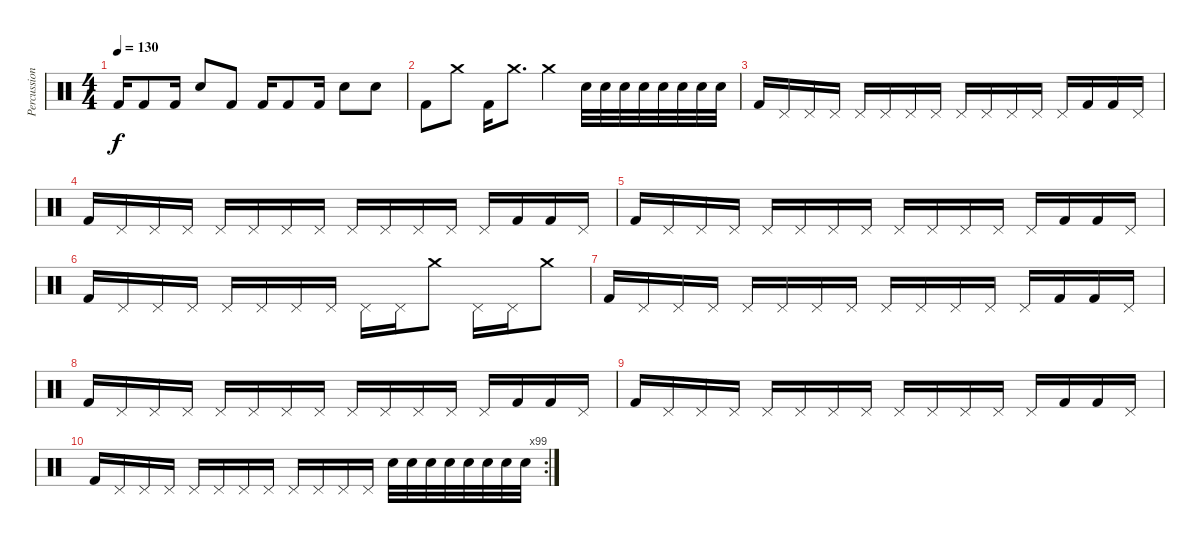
\track ("Percussion" "Percussion") {instrument percussion}
\staff {score}
\articulation defaults
\ts (4 4)
\tempo 130
\clef neutral
\ks c "Kick (hit) 2".16{dy f} "Kick (hit) 2".8 "Kick (hit) 2".16 "Snare (hit) 2".8 "Kick (hit) 2".8 "Kick (hit) 2".16 "Kick (hit) 2".8 "Kick (hit) 2".16 "Snare (hit) 2".8 "Snare (hit)".8
|
"Kick (hit) 2".8 "Crash medium (hit)".8 "Kick (hit) 2".16 "Crash medium (hit)".8{d} "Crash medium (hit)".4 "Snare (hit) 2".32 "Snare (hit) 2".32 "Snare (hit) 2".32 "Snare (hit) 2".32 "Snare (hit) 2".32 "Snare (hit) 2".32 "Snare (hit) 2".32 "Snare (hit) 2".32 |
"Kick (hit) 2".16 "Pedal Hi-Hat (hit)".16 "Pedal Hi-Hat (hit)".16 "Pedal Hi-Hat (hit)".16 "Pedal Hi-Hat (hit)".16 "Pedal Hi-Hat (hit)".16 "Pedal Hi-Hat (hit)".16 "Pedal Hi-Hat (hit)".16 "Pedal Hi-Hat (hit)".16 "Pedal Hi-Hat (hit)".16 "Pedal Hi-Hat (hit)".16 "Pedal Hi-Hat (hit)".16 "Pedal Hi-Hat (hit)".16 "Kick (hit) 2".16 "Kick (hit) 2".16 "Pedal Hi-Hat (hit)".16 |
"Kick (hit) 2".16 "Pedal Hi-Hat (hit)".16 "Pedal Hi-Hat (hit)".16 "Pedal Hi-Hat (hit)".16 "Pedal Hi-Hat (hit)".16 "Pedal Hi-Hat (hit)".16 "Pedal Hi-Hat (hit)".16 "Pedal Hi-Hat (hit)".16 "Pedal Hi-Hat (hit)".16 "Pedal Hi-Hat (hit)".16 "Pedal Hi-Hat (hit)".16 "Pedal Hi-Hat (hit)".16 "Pedal Hi-Hat (hit)".16 "Kick (hit) 2".16 "Kick (hit) 2".16 "Pedal Hi-Hat (hit)".16 |
"Kick (hit) 2".16 "Pedal Hi-Hat (hit)".16 "Pedal Hi-Hat (hit)".16 "Pedal Hi-Hat (hit)".16 "Pedal Hi-Hat (hit)".16 "Pedal Hi-Hat (hit)".16 "Pedal Hi-Hat (hit)".16 "Pedal Hi-Hat (hit)".16 "Pedal Hi-Hat (hit)".16 "Pedal Hi-Hat (hit)".16 "Pedal Hi-Hat (hit)".16 "Pedal Hi-Hat (hit)".16 "Pedal Hi-Hat (hit)".16 "Kick (hit) 2".16 "Kick (hit) 2".16 "Pedal Hi-Hat (hit)".16 |
"Kick (hit) 2".16 "Pedal Hi-Hat (hit)".16 "Pedal Hi-Hat (hit)".16 "Pedal Hi-Hat (hit)".16 "Pedal Hi-Hat (hit)".16 "Pedal Hi-Hat (hit)".16 "Pedal Hi-Hat (hit)".16 "Pedal Hi-Hat (hit)".16 "Pedal Hi-Hat (hit)".16 "Pedal Hi-Hat (hit)".16 "Crash medium (hit)".8 "Pedal Hi-Hat (hit)".16 "Pedal Hi-Hat (hit)".16 "Crash medium (hit)".8 |
"Kick (hit) 2".16 "Pedal Hi-Hat (hit)".16 "Pedal Hi-Hat (hit)".16 "Pedal Hi-Hat (hit)".16 "Pedal Hi-Hat (hit)".16 "Pedal Hi-Hat (hit)".16 "Pedal Hi-Hat (hit)".16 "Pedal Hi-Hat (hit)".16 "Pedal Hi-Hat (hit)".16 "Pedal Hi-Hat (hit)".16 "Pedal Hi-Hat (hit)".16 "Pedal Hi-Hat (hit)".16 "Pedal Hi-Hat (hit)".16 "Kick (hit) 2".16 "Kick (hit) 2".16 "Pedal Hi-Hat (hit)".16 |
"Kick (hit) 2".16 "Pedal Hi-Hat (hit)".16 "Pedal Hi-Hat (hit)".16 "Pedal Hi-Hat (hit)".16 "Pedal Hi-Hat (hit)".16 "Pedal Hi-Hat (hit)".16 "Pedal Hi-Hat (hit)".16 "Pedal Hi-Hat (hit)".16 "Pedal Hi-Hat (hit)".16 "Pedal Hi-Hat (hit)".16 "Pedal Hi-Hat (hit)".16 "Pedal Hi-Hat (hit)".16 "Pedal Hi-Hat (hit)".16 "Kick (hit) 2".16 "Kick (hit) 2".16 "Pedal Hi-Hat (hit)".16 |
"Kick (hit) 2".16 "Pedal Hi-Hat (hit)".16 "Pedal Hi-Hat (hit)".16 "Pedal Hi-Hat (hit)".16 "Pedal Hi-Hat (hit)".16 "Pedal Hi-Hat (hit)".16 "Pedal Hi-Hat (hit)".16 "Pedal Hi-Hat (hit)".16 "Pedal Hi-Hat (hit)".16 "Pedal Hi-Hat (hit)".16 "Pedal Hi-Hat (hit)".16 "Pedal Hi-Hat (hit)".16 "Pedal Hi-Hat (hit)".16 "Kick (hit) 2".16 "Kick (hit) 2".16 "Pedal Hi-Hat (hit)".16 |
\rc 99 "Kick (hit) 2".16 "Pedal Hi-Hat (hit)".16 "Pedal Hi-Hat (hit)".16 "Pedal Hi-Hat (hit)".16 "Pedal Hi-Hat (hit)".16 "Pedal Hi-Hat (hit)".16 "Pedal Hi-Hat (hit)".16 "Pedal Hi-Hat (hit)".16 "Pedal Hi-Hat (hit)".16 "Pedal Hi-Hat (hit)".16 "Pedal Hi-Hat (hit)".16 "Pedal Hi-Hat (hit)".16 "Snare (hit) 2".32 "Snare (hit) 2".32 "Snare (hit) 2".32 "Snare (hit) 2".32 "Snare (hit) 2".32 "Snare (hit) 2".32 "Snare (hit) 2".32 "Snare (hit) 2".32
